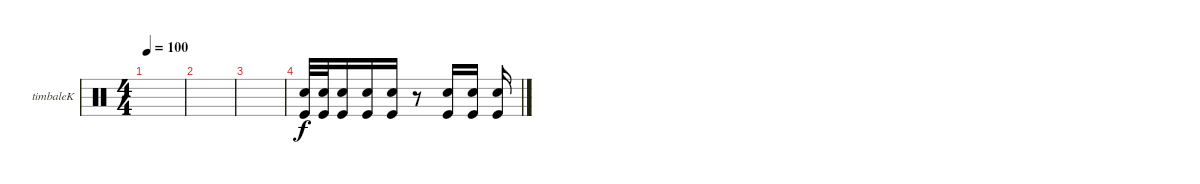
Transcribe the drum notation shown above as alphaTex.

\bracketExtendMode groupsimilarinstruments
\firstSystemTrackNameOrientation horizontal
\otherSystemsTrackNameOrientation horizontal
\track ("Timbalek" "timbaleK") {instrument percussion}
\staff {score}
\articulation defaults
\ts (4 4)
\tempo 100
\clef neutral
\scale
0.333333
\ks c
|
\scale
0.333333 |
\scale
0.333333 |
\scale
0.333333 ("Snare (hit) 2" "Kick (hit)").32 ("Snare (hit) 2" "Kick (hit)").32 ("Snare (hit) 2" "Kick (hit)").16 ("Snare (hit) 2" "Kick (hit)").16 ("Snare (hit) 2" "Kick (hit)").16 r.8 ("Snare (hit) 2" "Kick (hit)").16 ("Snare (hit) 2" "Kick (hit)").16 ("Snare (hit) 2" "Kick (hit)").16 |
\scale
0.333333 |
\scale
0.333333 |
\scale
0.333333 |
\scale
0.333333 |
\scale
0.333333
